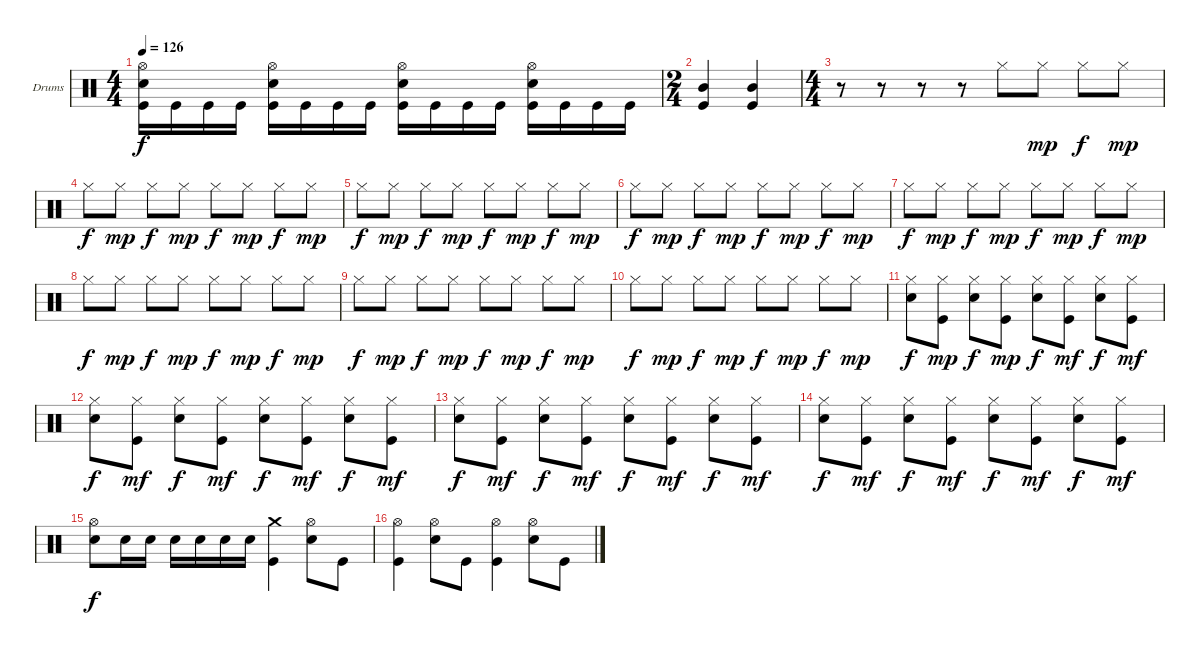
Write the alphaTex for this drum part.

\bracketExtendMode groupsimilarinstruments
\firstSystemTrackNameOrientation horizontal
\otherSystemsTrackNameOrientation horizontal
\track ("Drumkit" "Drums") {instrument percussion}
\staff {score}
\articulation defaults
\ts (4 4)
\tempo 126
\clef neutral
\ks c
("Hi-Hat (open)" "Snare (hit) 2" "Kick (hit)").16{dy f} "Kick (hit)".16 "Kick (hit)".16 "Kick (hit)".16 ("Hi-Hat (open)" "Snare (hit) 2" "Kick (hit)").16 "Kick (hit)".16 "Kick (hit)".16 "Kick (hit)".16 ("Hi-Hat (open)" "Snare (hit) 2" "Kick (hit)").16 "Kick (hit)".16 "Kick (hit)".16 "Kick (hit)".16 ("Hi-Hat (open)" "Snare (hit) 2" "Kick (hit)").16 "Kick (hit)".16 "Kick (hit)".16 "Kick (hit)".16 |
\ts (2 4)
\beaming (8 2 2)
("Kick (hit)" "Mid Tom (hit)").4 ("Kick (hit)" "Mid Tom (hit)").4 |
\ts (4 4)
r.8 r.8 r.8 r.8 "Hi-Hat (closed)".8 "Hi-Hat (closed)".8{dy mp} "Hi-Hat (closed)".8{dy f} "Hi-Hat (closed)".8{dy mp} |
"Hi-Hat (closed)".8{dy f} "Hi-Hat (closed)".8{dy mp} "Hi-Hat (closed)".8{dy f} "Hi-Hat (closed)".8{dy mp} "Hi-Hat (closed)".8{dy f} "Hi-Hat (closed)".8{dy mp} "Hi-Hat (closed)".8{dy f} "Hi-Hat (closed)".8{dy mp} |
"Hi-Hat (closed)".8{dy f} "Hi-Hat (closed)".8{dy mp} "Hi-Hat (closed)".8{dy f} "Hi-Hat (closed)".8{dy mp} "Hi-Hat (closed)".8{dy f} "Hi-Hat (closed)".8{dy mp} "Hi-Hat (closed)".8{dy f} "Hi-Hat (closed)".8{dy mp} |
"Hi-Hat (closed)".8{dy f} "Hi-Hat (closed)".8{dy mp} "Hi-Hat (closed)".8{dy f} "Hi-Hat (closed)".8{dy mp} "Hi-Hat (closed)".8{dy f} "Hi-Hat (closed)".8{dy mp} "Hi-Hat (closed)".8{dy f} "Hi-Hat (closed)".8{dy mp} |
"Hi-Hat (closed)".8{dy f} "Hi-Hat (closed)".8{dy mp} "Hi-Hat (closed)".8{dy f} "Hi-Hat (closed)".8{dy mp} "Hi-Hat (closed)".8{dy f} "Hi-Hat (closed)".8{dy mp} "Hi-Hat (closed)".8{dy f} "Hi-Hat (closed)".8{dy mp} |
"Hi-Hat (closed)".8{dy f} "Hi-Hat (closed)".8{dy mp} "Hi-Hat (closed)".8{dy f} "Hi-Hat (closed)".8{dy mp} "Hi-Hat (closed)".8{dy f} "Hi-Hat (closed)".8{dy mp} "Hi-Hat (closed)".8{dy f} "Hi-Hat (closed)".8{dy mp} |
"Hi-Hat (closed)".8{dy f} "Hi-Hat (closed)".8{dy mp} "Hi-Hat (closed)".8{dy f} "Hi-Hat (closed)".8{dy mp} "Hi-Hat (closed)".8{dy f} "Hi-Hat (closed)".8{dy mp} "Hi-Hat (closed)".8{dy f} "Hi-Hat (closed)".8{dy mp} |
"Hi-Hat (closed)".8{dy f} "Hi-Hat (closed)".8{dy mp} "Hi-Hat (closed)".8{dy f} "Hi-Hat (closed)".8{dy mp} "Hi-Hat (closed)".8{dy f} "Hi-Hat (closed)".8{dy mp} "Hi-Hat (closed)".8{dy f} "Hi-Hat (closed)".8{dy mp} |
("Hi-Hat (closed)" "Snare (hit) 2").8{dy f} ("Hi-Hat (closed)" "Kick (hit)").8{dy mp} ("Hi-Hat (closed)" "Snare (hit) 2").8{dy f} ("Hi-Hat (closed)" "Kick (hit)").8{dy mp} ("Hi-Hat (closed)" "Snare (hit) 2").8{dy f} ("Hi-Hat (closed)" "Kick (hit)").8{dy mf} ("Hi-Hat (closed)" "Snare (hit) 2").8{dy f} ("Hi-Hat (closed)" "Kick (hit)").8{dy mf} |
("Hi-Hat (closed)" "Snare (hit) 2").8{dy f} ("Hi-Hat (closed)" "Kick (hit)").8{dy mf} ("Hi-Hat (closed)" "Snare (hit) 2").8{dy f} ("Hi-Hat (closed)" "Kick (hit)").8{dy mf} ("Hi-Hat (closed)" "Snare (hit) 2").8{dy f} ("Hi-Hat (closed)" "Kick (hit)").8{dy mf} ("Hi-Hat (closed)" "Snare (hit) 2").8{dy f} ("Hi-Hat (closed)" "Kick (hit)").8{dy mf} |
("Hi-Hat (closed)" "Snare (hit) 2").8{dy f} ("Hi-Hat (closed)" "Kick (hit)").8{dy mf} ("Hi-Hat (closed)" "Snare (hit) 2").8{dy f} ("Hi-Hat (closed)" "Kick (hit)").8{dy mf} ("Hi-Hat (closed)" "Snare (hit) 2").8{dy f} ("Hi-Hat (closed)" "Kick (hit)").8{dy mf} ("Hi-Hat (closed)" "Snare (hit) 2").8{dy f} ("Hi-Hat (closed)" "Kick (hit)").8{dy mf} |
("Hi-Hat (closed)" "Snare (hit) 2").8{dy f} ("Hi-Hat (closed)" "Kick (hit)").8{dy mf} ("Hi-Hat (closed)" "Snare (hit) 2").8{dy f} ("Hi-Hat (closed)" "Kick (hit)").8{dy mf} ("Hi-Hat (closed)" "Snare (hit) 2").8{dy f} ("Hi-Hat (closed)" "Kick (hit)").8{dy mf} ("Hi-Hat (closed)" "Snare (hit) 2").8{dy f} ("Hi-Hat (closed)" "Kick (hit)").8{dy mf} |
("Hi-Hat (open)" "Snare (hit) 2").8{dy f} "Snare (hit) 2".16 "Snare (hit) 2".16 "Snare (hit) 2".16 "Snare (hit) 2".16 "Snare (hit) 2".16 "Snare (hit) 2".16 ("Crash medium (hit)" "Kick (hit)").4 ("Hi-Hat (open)" "Snare (hit) 2").8 "Kick (hit)".8 |
("Kick (hit)" "Hi-Hat (open)").4 ("Snare (hit) 2" "Hi-Hat (open)").8 "Kick (hit)".8 ("Kick (hit)" "Hi-Hat (open)").4 ("Snare (hit) 2" "Hi-Hat (open)").8 "Kick (hit)".8
